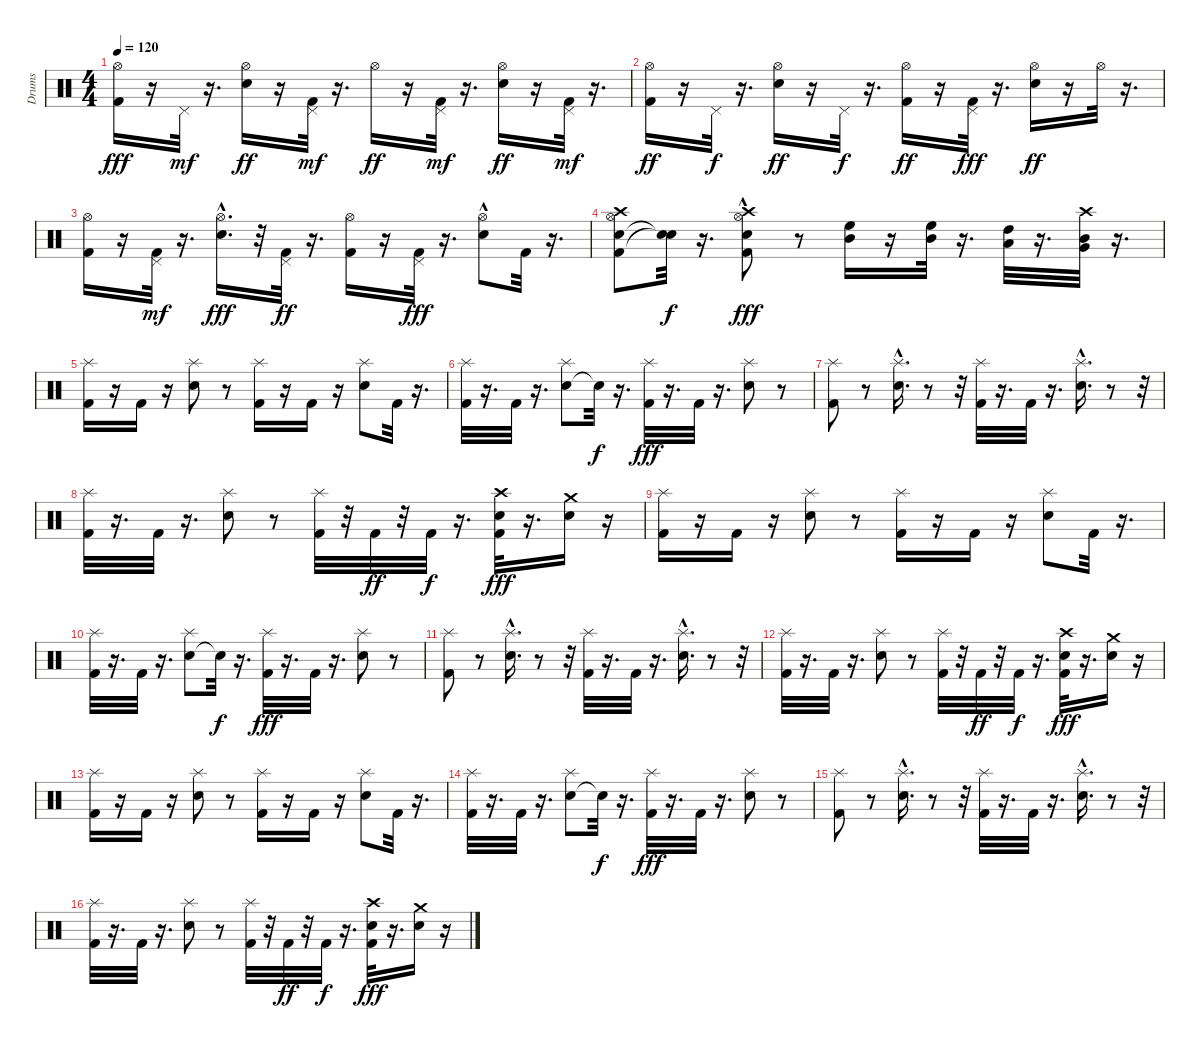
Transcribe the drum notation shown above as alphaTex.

\track ("Drums" "Drums") {instrument percussion}
\staff {score}
\articulation defaults
\ts (4 4)
\tempo 120
\clef neutral
\ks c
("Kick (hit) 2" "Hi-Hat (open)").16{dy fff} r.16 "Pedal Hi-Hat (hit)".32{dy mf} r.16{d} ("Electric Snare (hit)" "Hi-Hat (open)").16{dy ff} r.16 ("Kick (hit) 2" "Pedal Hi-Hat (hit)").32{dy mf} r.16{d} "Hi-Hat (open)".16{dy ff} r.16 ("Kick (hit) 2" "Pedal Hi-Hat (hit)").32{dy mf} r.16{d} ("Electric Snare (hit)" "Hi-Hat (open)").16{dy ff} r.16 ("Kick (hit) 2" "Pedal Hi-Hat (hit)").32{dy mf} r.16{d} |
("Kick (hit) 2" "Hi-Hat (open)").16{dy ff} r.16 "Pedal Hi-Hat (hit)".32{dy f} r.16{d} ("Electric Snare (hit)" "Hi-Hat (open)").16{dy ff} r.16 "Pedal Hi-Hat (hit)".32{dy f} r.16{d} ("Kick (hit) 2" "Hi-Hat (open)").16{dy ff} r.16 ("Kick (hit) 2" "Pedal Hi-Hat (hit)").32{dy fff} r.16{d} ("Electric Snare (hit)" "Hi-Hat (open)").16{dy ff} r.16 "Hi-Hat (open)".32 r.16{d} |
("Kick (hit) 2" "Hi-Hat (open)").16 r.16 ("Kick (hit) 2" "Pedal Hi-Hat (hit)").32{dy mf} r.16{d} ("Electric Snare (hit)"{hac} "Hi-Hat (open)").16{d dy fff} r.32 ("Kick (hit) 2" "Pedal Hi-Hat (hit)").32{dy ff} r.16{d} ("Kick (hit) 2" "Hi-Hat (open)").16 r.16 ("Kick (hit) 2" "Pedal Hi-Hat (hit)").32{dy fff} r.16{d} ("Electric Snare (hit)"{hac} "Hi-Hat (open)").8 "Kick (hit) 2".32 r.16{d} |
("Kick (hit) 2" "Electric Snare (hit)" "Crash high (hit)" "Hi-Hat (open)").8 ("Snare (hit)"{t} "Snare (hit)"{t}).32{dy f} r.16{d} ("Kick (hit) 2" "Electric Snare (hit)"{hac} "Crash high (hit)" "Hi-Hat (open)"{hac}).8{dy fff} r.8 ("Mid Tom (hit)" "High Floor Tom (hit)").16 r.16 ("Mid Tom (hit)" "High Floor Tom (hit)").32 r.16{d} ("Low Tom (hit)" "High Tom (hit)").32 r.16{d} ("Very Low Tom (hit)" "Mid Tom (hit)" "Crash high (hit)").32 r.16{d} |
("Kick (hit) 2" "Splash (hit)").16 r.16 "Kick (hit) 2".16 r.16 ("Electric Snare (hit)" "Splash (hit)").8 r.8 ("Kick (hit) 2" "Splash (hit)").16 r.16 "Kick (hit) 2".16 r.16 ("Electric Snare (hit)" "Splash (hit)").8 "Kick (hit) 2".32 r.16{d} |
("Kick (hit) 2" "Splash (hit)").32 r.16{d} "Kick (hit) 2".32 r.16{d} ("Electric Snare (hit)" "Splash (hit)").8 "Snare (hit)"{t}.32{dy f} r.16{d} ("Kick (hit) 2" "Splash (hit)").32{dy fff} r.16{d} "Kick (hit) 2".32 r.16{d} ("Electric Snare (hit)" "Splash (hit)").8 r.8 |
("Kick (hit) 2" "Splash (hit)").8 r.8 ("Electric Snare (hit)"{hac} "Splash (hit)").16{d} r.8 r.32 ("Kick (hit) 2" "Splash (hit)").32 r.16{d} "Kick (hit) 2".32 r.16{d} ("Electric Snare (hit)"{hac} "Splash (hit)").16{d} r.8 r.32 |
("Kick (hit) 2" "Splash (hit)").32 r.16{d} "Kick (hit) 2".32 r.16{d} ("Electric Snare (hit)" "Splash (hit)").8 r.8 ("Kick (hit) 2" "Splash (hit)").32 r.32 "Kick (hit) 2".32{dy ff} r.32 "Kick (hit) 2".32{dy f} r.16{d} ("Kick (hit) 2" "Electric Snare (hit)" "Crash high (hit)").32{dy fff} r.16{d} ("Electric Snare (hit)" "Crash medium (hit)").16 r.16 |
("Kick (hit) 2" "Splash (hit)").16 r.16 "Kick (hit) 2".16 r.16 ("Electric Snare (hit)" "Splash (hit)").8 r.8 ("Kick (hit) 2" "Splash (hit)").16 r.16 "Kick (hit) 2".16 r.16 ("Electric Snare (hit)" "Splash (hit)").8 "Kick (hit) 2".32 r.16{d} |
("Kick (hit) 2" "Splash (hit)").32 r.16{d} "Kick (hit) 2".32 r.16{d} ("Electric Snare (hit)" "Splash (hit)").8 "Snare (hit)"{t}.32{dy f} r.16{d} ("Kick (hit) 2" "Splash (hit)").32{dy fff} r.16{d} "Kick (hit) 2".32 r.16{d} ("Electric Snare (hit)" "Splash (hit)").8 r.8 |
("Kick (hit) 2" "Splash (hit)").8 r.8 ("Electric Snare (hit)"{hac} "Splash (hit)").16{d} r.8 r.32 ("Kick (hit) 2" "Splash (hit)").32 r.16{d} "Kick (hit) 2".32 r.16{d} ("Electric Snare (hit)"{hac} "Splash (hit)").16{d} r.8 r.32 |
("Kick (hit) 2" "Splash (hit)").32 r.16{d} "Kick (hit) 2".32 r.16{d} ("Electric Snare (hit)" "Splash (hit)").8 r.8 ("Kick (hit) 2" "Splash (hit)").32 r.32 "Kick (hit) 2".32{dy ff} r.32 "Kick (hit) 2".32{dy f} r.16{d} ("Kick (hit) 2" "Electric Snare (hit)" "Crash high (hit)").32{dy fff} r.16{d} ("Electric Snare (hit)" "Crash medium (hit)").16 r.16 |
("Kick (hit) 2" "Splash (hit)").16 r.16 "Kick (hit) 2".16 r.16 ("Electric Snare (hit)" "Splash (hit)").8 r.8 ("Kick (hit) 2" "Splash (hit)").16 r.16 "Kick (hit) 2".16 r.16 ("Electric Snare (hit)" "Splash (hit)").8 "Kick (hit) 2".32 r.16{d} |
("Kick (hit) 2" "Splash (hit)").32 r.16{d} "Kick (hit) 2".32 r.16{d} ("Electric Snare (hit)" "Splash (hit)").8 "Snare (hit)"{t}.32{dy f} r.16{d} ("Kick (hit) 2" "Splash (hit)").32{dy fff} r.16{d} "Kick (hit) 2".32 r.16{d} ("Electric Snare (hit)" "Splash (hit)").8 r.8 |
("Kick (hit) 2" "Splash (hit)").8 r.8 ("Electric Snare (hit)"{hac} "Splash (hit)").16{d} r.8 r.32 ("Kick (hit) 2" "Splash (hit)").32 r.16{d} "Kick (hit) 2".32 r.16{d} ("Electric Snare (hit)"{hac} "Splash (hit)").16{d} r.8 r.32 |
("Kick (hit) 2" "Splash (hit)").32 r.16{d} "Kick (hit) 2".32 r.16{d} ("Electric Snare (hit)" "Splash (hit)").8 r.8 ("Kick (hit) 2" "Splash (hit)").32 r.32 "Kick (hit) 2".32{dy ff} r.32 "Kick (hit) 2".32{dy f} r.16{d} ("Kick (hit) 2" "Electric Snare (hit)" "Crash high (hit)").32{dy fff} r.16{d} ("Electric Snare (hit)" "Crash medium (hit)").16 r.16
